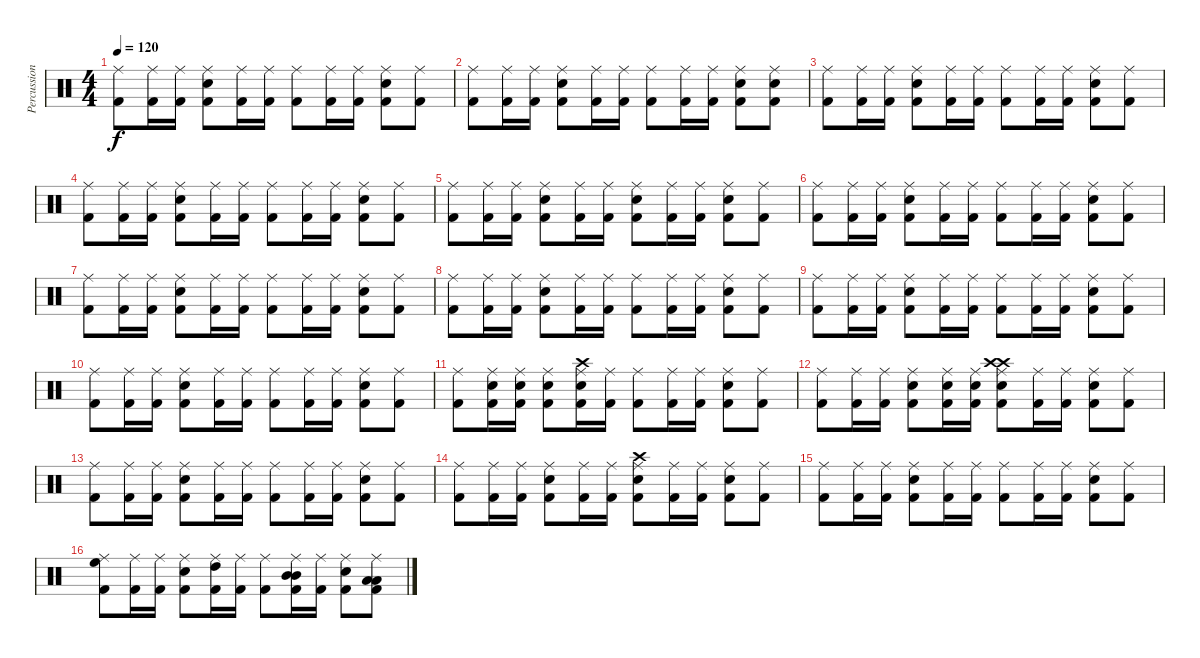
\track ("Percussioni" "Percussion") {instrument percussion}
\staff {score}
\articulation defaults
\ts (4 4)
\tempo 120
\clef neutral
\ks c
("Ride (middle)" "Kick (hit) 2").8{dy f} ("Ride (middle)" "Kick (hit) 2").16 ("Ride (middle)" "Kick (hit) 2").16 ("Ride (middle)" "Kick (hit) 2" "Electric Snare (hit)").8 ("Ride (middle)" "Kick (hit) 2").16 ("Ride (middle)" "Kick (hit) 2").16 ("Ride (middle)" "Kick (hit) 2").8 ("Ride (middle)" "Kick (hit) 2").16 ("Ride (middle)" "Kick (hit) 2").16 ("Ride (middle)" "Kick (hit) 2" "Electric Snare (hit)").8 ("Ride (middle)" "Kick (hit) 2").8 |
("Ride (middle)" "Kick (hit) 2").8 ("Ride (middle)" "Kick (hit) 2").16 ("Ride (middle)" "Kick (hit) 2").16 ("Ride (middle)" "Kick (hit) 2" "Electric Snare (hit)").8 ("Ride (middle)" "Kick (hit) 2").16 ("Ride (middle)" "Kick (hit) 2").16 ("Ride (middle)" "Kick (hit) 2").8 ("Ride (middle)" "Kick (hit) 2").16 ("Ride (middle)" "Kick (hit) 2").16 ("Ride (middle)" "Kick (hit) 2" "Electric Snare (hit)").8 ("Ride (middle)" "Kick (hit) 2" "Electric Snare (hit)").8 |
("Ride (middle)" "Kick (hit) 2").8 ("Ride (middle)" "Kick (hit) 2").16 ("Ride (middle)" "Kick (hit) 2").16 ("Ride (middle)" "Kick (hit) 2" "Electric Snare (hit)").8 ("Ride (middle)" "Kick (hit) 2").16 ("Ride (middle)" "Kick (hit) 2").16 ("Ride (middle)" "Kick (hit) 2").8 ("Ride (middle)" "Kick (hit) 2").16 ("Ride (middle)" "Kick (hit) 2").16 ("Ride (middle)" "Kick (hit) 2" "Electric Snare (hit)").8 ("Ride (middle)" "Kick (hit) 2").8 |
("Ride (middle)" "Kick (hit) 2").8 ("Ride (middle)" "Kick (hit) 2").16 ("Ride (middle)" "Kick (hit) 2").16 ("Ride (middle)" "Kick (hit) 2" "Electric Snare (hit)").8 ("Ride (middle)" "Kick (hit) 2").16 ("Ride (middle)" "Kick (hit) 2").16 ("Ride (middle)" "Kick (hit) 2").8 ("Ride (middle)" "Kick (hit) 2").16 ("Ride (middle)" "Kick (hit) 2").16 ("Ride (middle)" "Kick (hit) 2" "Electric Snare (hit)").8 ("Ride (middle)" "Kick (hit) 2").8 |
("Ride (middle)" "Kick (hit) 2").8 ("Ride (middle)" "Kick (hit) 2").16 ("Ride (middle)" "Kick (hit) 2").16 ("Ride (middle)" "Kick (hit) 2" "Electric Snare (hit)").8 ("Ride (middle)" "Kick (hit) 2").16 ("Ride (middle)" "Kick (hit) 2").16 ("Ride (middle)" "Kick (hit) 2" "Electric Snare (hit)").8 ("Ride (middle)" "Kick (hit) 2").16 ("Ride (middle)" "Kick (hit) 2").16 ("Ride (middle)" "Kick (hit) 2" "Electric Snare (hit)").8 ("Ride (middle)" "Kick (hit) 2").8 |
("Ride (middle)" "Kick (hit) 2").8 ("Ride (middle)" "Kick (hit) 2").16 ("Ride (middle)" "Kick (hit) 2").16 ("Ride (middle)" "Kick (hit) 2" "Electric Snare (hit)").8 ("Ride (middle)" "Kick (hit) 2").16 ("Ride (middle)" "Kick (hit) 2").16 ("Ride (middle)" "Kick (hit) 2").8 ("Ride (middle)" "Kick (hit) 2").16 ("Ride (middle)" "Kick (hit) 2").16 ("Ride (middle)" "Kick (hit) 2" "Electric Snare (hit)").8 ("Ride (middle)" "Kick (hit) 2").8 |
("Ride (middle)" "Kick (hit) 2").8 ("Ride (middle)" "Kick (hit) 2").16 ("Ride (middle)" "Kick (hit) 2").16 ("Ride (middle)" "Kick (hit) 2" "Electric Snare (hit)").8 ("Ride (middle)" "Kick (hit) 2").16 ("Ride (middle)" "Kick (hit) 2").16 ("Ride (middle)" "Kick (hit) 2").8 ("Ride (middle)" "Kick (hit) 2").16 ("Ride (middle)" "Kick (hit) 2").16 ("Ride (middle)" "Kick (hit) 2" "Electric Snare (hit)").8 ("Ride (middle)" "Kick (hit) 2").8 |
("Ride (middle)" "Kick (hit) 2").8 ("Ride (middle)" "Kick (hit) 2").16 ("Ride (middle)" "Kick (hit) 2").16 ("Ride (middle)" "Kick (hit) 2" "Electric Snare (hit)").8 ("Ride (middle)" "Kick (hit) 2").16 ("Ride (middle)" "Kick (hit) 2").16 ("Ride (middle)" "Kick (hit) 2").8 ("Ride (middle)" "Kick (hit) 2").16 ("Ride (middle)" "Kick (hit) 2").16 ("Ride (middle)" "Kick (hit) 2" "Electric Snare (hit)").8 ("Ride (middle)" "Kick (hit) 2").8 |
("Ride (middle)" "Kick (hit) 2").8 ("Ride (middle)" "Kick (hit) 2").16 ("Ride (middle)" "Kick (hit) 2").16 ("Ride (middle)" "Kick (hit) 2" "Electric Snare (hit)").8 ("Ride (middle)" "Kick (hit) 2").16 ("Ride (middle)" "Kick (hit) 2").16 ("Ride (middle)" "Kick (hit) 2").8 ("Ride (middle)" "Kick (hit) 2").16 ("Ride (middle)" "Kick (hit) 2").16 ("Ride (middle)" "Kick (hit) 2" "Electric Snare (hit)").8 ("Ride (middle)" "Kick (hit) 2").8 |
("Ride (middle)" "Kick (hit) 2").8 ("Ride (middle)" "Kick (hit) 2").16 ("Ride (middle)" "Kick (hit) 2").16 ("Ride (middle)" "Kick (hit) 2" "Electric Snare (hit)").8 ("Ride (middle)" "Kick (hit) 2").16 ("Ride (middle)" "Kick (hit) 2").16 ("Ride (middle)" "Kick (hit) 2").8 ("Ride (middle)" "Kick (hit) 2").16 ("Ride (middle)" "Kick (hit) 2").16 ("Ride (middle)" "Kick (hit) 2" "Electric Snare (hit)").8 ("Ride (middle)" "Kick (hit) 2").8 |
("Ride (middle)" "Kick (hit) 2").8 ("Ride (middle)" "Kick (hit) 2" "Electric Snare (hit)").16 ("Ride (middle)" "Kick (hit) 2" "Electric Snare (hit)").16 ("Ride (middle)" "Kick (hit) 2" "Electric Snare (hit)").8 ("Ride (middle)" "Kick (hit) 2" "Electric Snare (hit)" "Crash high (hit)").16 ("Ride (middle)" "Kick (hit) 2").16 ("Ride (middle)" "Kick (hit) 2").8 ("Ride (middle)" "Kick (hit) 2").16 ("Ride (middle)" "Kick (hit) 2").16 ("Ride (middle)" "Kick (hit) 2" "Electric Snare (hit)").8 ("Ride (middle)" "Kick (hit) 2").8 |
("Ride (middle)" "Kick (hit) 2").8 ("Ride (middle)" "Kick (hit) 2").16 ("Ride (middle)" "Kick (hit) 2").16 ("Ride (middle)" "Kick (hit) 2" "Electric Snare (hit)").8 ("Ride (middle)" "Kick (hit) 2" "Electric Snare (hit)").16 ("Ride (middle)" "Kick (hit) 2" "Electric Snare (hit)").16 ("Ride (middle)" "Kick (hit) 2" "Electric Snare (hit)" "Crash high (hit)" "Crash high (hit)").8 ("Ride (middle)" "Kick (hit) 2").16 ("Ride (middle)" "Kick (hit) 2").16 ("Ride (middle)" "Kick (hit) 2" "Electric Snare (hit)").8 ("Ride (middle)" "Kick (hit) 2").8 |
("Ride (middle)" "Kick (hit) 2").8 ("Ride (middle)" "Kick (hit) 2").16 ("Ride (middle)" "Kick (hit) 2").16 ("Ride (middle)" "Kick (hit) 2" "Electric Snare (hit)").8 ("Ride (middle)" "Kick (hit) 2").16 ("Ride (middle)" "Kick (hit) 2").16 ("Ride (middle)" "Kick (hit) 2").8 ("Ride (middle)" "Kick (hit) 2").16 ("Ride (middle)" "Kick (hit) 2").16 ("Ride (middle)" "Kick (hit) 2" "Electric Snare (hit)").8 ("Ride (middle)" "Kick (hit) 2").8 |
("Ride (middle)" "Kick (hit) 2").8 ("Ride (middle)" "Kick (hit) 2").16 ("Ride (middle)" "Kick (hit) 2").16 ("Ride (middle)" "Kick (hit) 2" "Electric Snare (hit)").8 ("Ride (middle)" "Kick (hit) 2").16 ("Ride (middle)" "Kick (hit) 2").16 ("Ride (middle)" "Kick (hit) 2" "Electric Snare (hit)" "Crash high (hit)").8 ("Ride (middle)" "Kick (hit) 2").16 ("Ride (middle)" "Kick (hit) 2").16 ("Ride (middle)" "Kick (hit) 2" "Electric Snare (hit)").8 ("Ride (middle)" "Kick (hit) 2").8 |
("Ride (middle)" "Kick (hit) 2").8 ("Ride (middle)" "Kick (hit) 2").16 ("Ride (middle)" "Kick (hit) 2").16 ("Ride (middle)" "Kick (hit) 2" "Electric Snare (hit)").8 ("Ride (middle)" "Kick (hit) 2").16 ("Ride (middle)" "Kick (hit) 2").16 ("Ride (middle)" "Kick (hit) 2").8 ("Ride (middle)" "Kick (hit) 2").16 ("Ride (middle)" "Kick (hit) 2").16 ("Ride (middle)" "Kick (hit) 2" "Electric Snare (hit)").8 ("Ride (middle)" "Kick (hit) 2").8 |
("Ride (middle)" "Kick (hit) 2" "High Floor Tom (hit)").8 ("Ride (middle)" "Kick (hit) 2").16 ("Ride (middle)" "Kick (hit) 2").16 ("Ride (middle)" "Kick (hit) 2" "Electric Snare (hit)").8 ("Ride (middle)" "Kick (hit) 2" "High Tom (hit)").16 ("Ride (middle)" "Kick (hit) 2").16 ("Ride (middle)" "Kick (hit) 2").8 ("Ride (middle)" "Kick (hit) 2" "Mid Tom (hit)" "Mid Tom (hit)").16 ("Ride (middle)" "Kick (hit) 2").16 ("Ride (middle)" "Kick (hit) 2" "Electric Snare (hit)").8 ("Ride (middle)" "Kick (hit) 2" "Low Tom (hit)" "Low Tom (hit)").8
